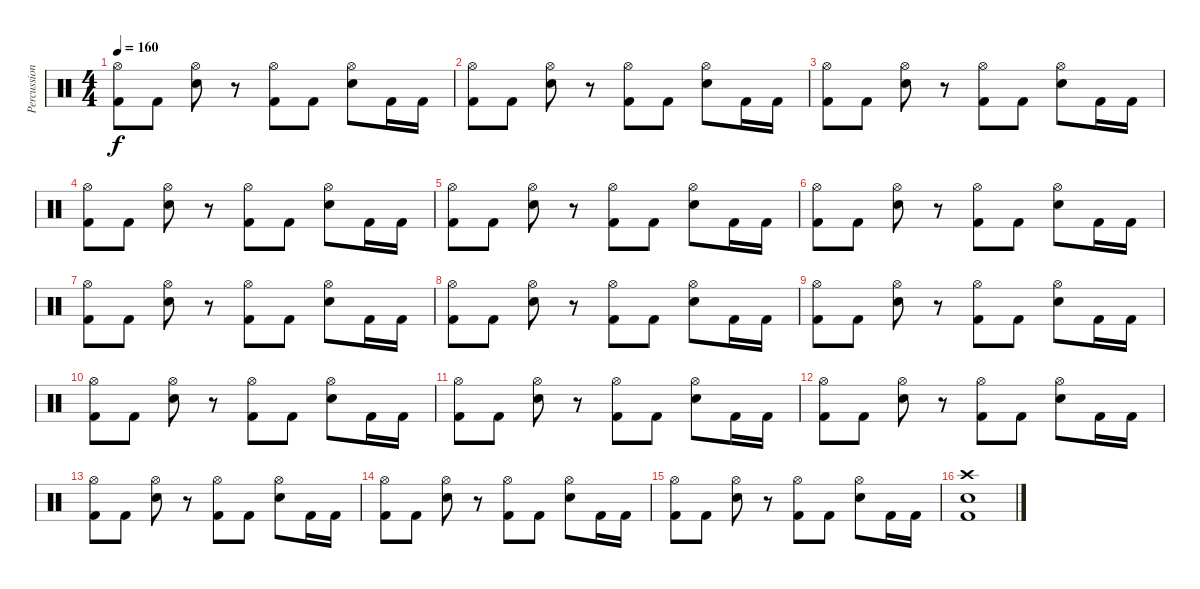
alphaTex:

\track ("Percussion" "Percussion") {instrument percussion}
\staff {score}
\articulation defaults
\ts (4 4)
\tempo 160
\clef neutral
\ks c
("Kick (hit) 2" "Hi-Hat (open)").8{dy f} "Kick (hit) 2".8 ("Electric Snare (hit)" "Hi-Hat (open)").8 r.8 ("Kick (hit) 2" "Hi-Hat (open)").8 "Kick (hit) 2".8 ("Electric Snare (hit)" "Hi-Hat (open)").8 "Kick (hit) 2".16 "Kick (hit) 2".16 |
("Kick (hit) 2" "Hi-Hat (open)").8 "Kick (hit) 2".8 ("Electric Snare (hit)" "Hi-Hat (open)").8 r.8 ("Kick (hit) 2" "Hi-Hat (open)").8 "Kick (hit) 2".8 ("Electric Snare (hit)" "Hi-Hat (open)").8 "Kick (hit) 2".16 "Kick (hit) 2".16 |
("Kick (hit) 2" "Hi-Hat (open)").8 "Kick (hit) 2".8 ("Electric Snare (hit)" "Hi-Hat (open)").8 r.8 ("Kick (hit) 2" "Hi-Hat (open)").8 "Kick (hit) 2".8 ("Electric Snare (hit)" "Hi-Hat (open)").8 "Kick (hit) 2".16 "Kick (hit) 2".16 |
("Kick (hit) 2" "Hi-Hat (open)").8 "Kick (hit) 2".8 ("Electric Snare (hit)" "Hi-Hat (open)").8 r.8 ("Kick (hit) 2" "Hi-Hat (open)").8 "Kick (hit) 2".8 ("Electric Snare (hit)" "Hi-Hat (open)").8 "Kick (hit) 2".16 "Kick (hit) 2".16 |
("Kick (hit) 2" "Hi-Hat (open)").8 "Kick (hit) 2".8 ("Electric Snare (hit)" "Hi-Hat (open)").8 r.8 ("Kick (hit) 2" "Hi-Hat (open)").8 "Kick (hit) 2".8 ("Electric Snare (hit)" "Hi-Hat (open)").8 "Kick (hit) 2".16 "Kick (hit) 2".16 |
("Kick (hit) 2" "Hi-Hat (open)").8 "Kick (hit) 2".8 ("Electric Snare (hit)" "Hi-Hat (open)").8 r.8 ("Kick (hit) 2" "Hi-Hat (open)").8 "Kick (hit) 2".8 ("Electric Snare (hit)" "Hi-Hat (open)").8 "Kick (hit) 2".16 "Kick (hit) 2".16 |
("Kick (hit) 2" "Hi-Hat (open)").8 "Kick (hit) 2".8 ("Electric Snare (hit)" "Hi-Hat (open)").8 r.8 ("Kick (hit) 2" "Hi-Hat (open)").8 "Kick (hit) 2".8 ("Electric Snare (hit)" "Hi-Hat (open)").8 "Kick (hit) 2".16 "Kick (hit) 2".16 |
("Kick (hit) 2" "Hi-Hat (open)").8 "Kick (hit) 2".8 ("Electric Snare (hit)" "Hi-Hat (open)").8 r.8 ("Kick (hit) 2" "Hi-Hat (open)").8 "Kick (hit) 2".8 ("Electric Snare (hit)" "Hi-Hat (open)").8 "Kick (hit) 2".16 "Kick (hit) 2".16 |
("Kick (hit) 2" "Hi-Hat (open)").8 "Kick (hit) 2".8 ("Electric Snare (hit)" "Hi-Hat (open)").8 r.8 ("Kick (hit) 2" "Hi-Hat (open)").8 "Kick (hit) 2".8 ("Electric Snare (hit)" "Hi-Hat (open)").8 "Kick (hit) 2".16 "Kick (hit) 2".16 |
("Kick (hit) 2" "Hi-Hat (open)").8 "Kick (hit) 2".8 ("Electric Snare (hit)" "Hi-Hat (open)").8 r.8 ("Kick (hit) 2" "Hi-Hat (open)").8 "Kick (hit) 2".8 ("Electric Snare (hit)" "Hi-Hat (open)").8 "Kick (hit) 2".16 "Kick (hit) 2".16 |
("Kick (hit) 2" "Hi-Hat (open)").8 "Kick (hit) 2".8 ("Electric Snare (hit)" "Hi-Hat (open)").8 r.8 ("Kick (hit) 2" "Hi-Hat (open)").8 "Kick (hit) 2".8 ("Electric Snare (hit)" "Hi-Hat (open)").8 "Kick (hit) 2".16 "Kick (hit) 2".16 |
("Kick (hit) 2" "Hi-Hat (open)").8 "Kick (hit) 2".8 ("Electric Snare (hit)" "Hi-Hat (open)").8 r.8 ("Kick (hit) 2" "Hi-Hat (open)").8 "Kick (hit) 2".8 ("Electric Snare (hit)" "Hi-Hat (open)").8 "Kick (hit) 2".16 "Kick (hit) 2".16 |
("Kick (hit) 2" "Hi-Hat (open)").8 "Kick (hit) 2".8 ("Electric Snare (hit)" "Hi-Hat (open)").8 r.8 ("Kick (hit) 2" "Hi-Hat (open)").8 "Kick (hit) 2".8 ("Electric Snare (hit)" "Hi-Hat (open)").8 "Kick (hit) 2".16 "Kick (hit) 2".16 |
("Kick (hit) 2" "Hi-Hat (open)").8 "Kick (hit) 2".8 ("Electric Snare (hit)" "Hi-Hat (open)").8 r.8 ("Kick (hit) 2" "Hi-Hat (open)").8 "Kick (hit) 2".8 ("Electric Snare (hit)" "Hi-Hat (open)").8 "Kick (hit) 2".16 "Kick (hit) 2".16 |
("Kick (hit) 2" "Hi-Hat (open)").8 "Kick (hit) 2".8 ("Electric Snare (hit)" "Hi-Hat (open)").8 r.8 ("Kick (hit) 2" "Hi-Hat (open)").8 "Kick (hit) 2".8 ("Electric Snare (hit)" "Hi-Hat (open)").8 "Kick (hit) 2".16 "Kick (hit) 2".16 |
("Crash high (hit)" "Electric Snare (hit)" "Kick (hit) 2").1
